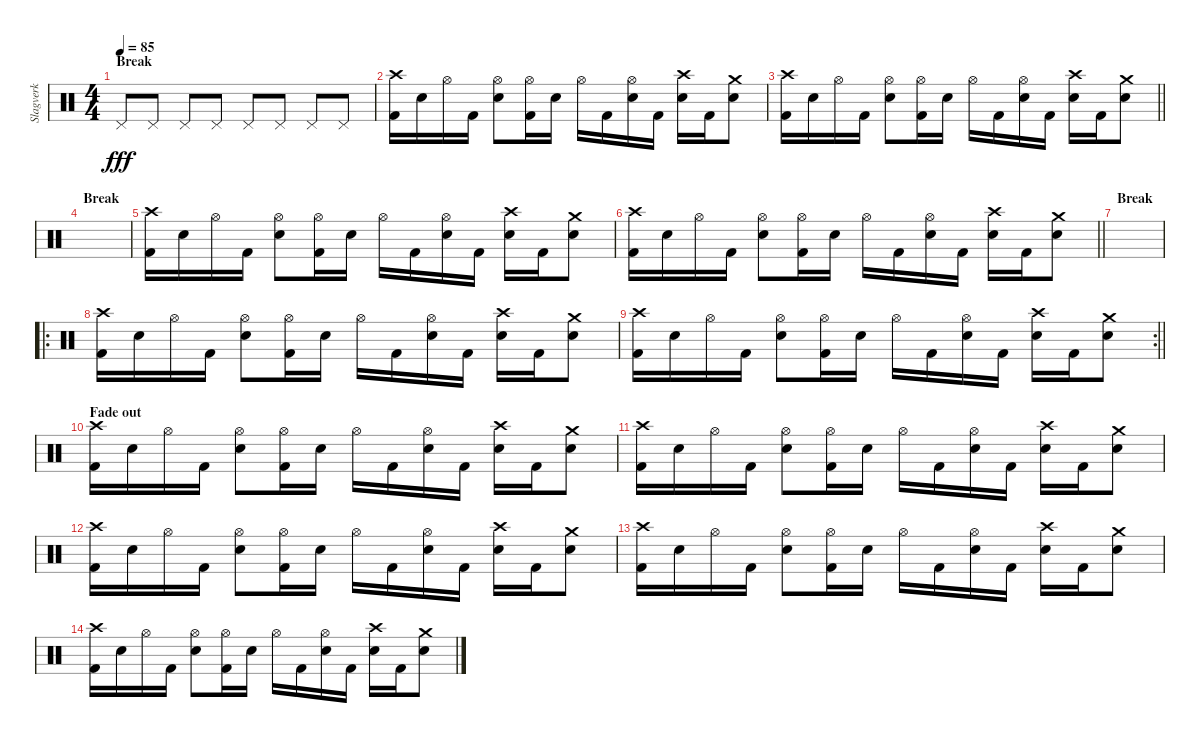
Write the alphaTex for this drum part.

\track ("Slagverk" "Slagverk") {instrument percussion}
\staff {score}
\articulation defaults
\ts (4 4)
\section ("" "Break")
\tempo 85
\clef neutral
\ks c "Pedal Hi-Hat (hit)".8{dy fff} "Pedal Hi-Hat (hit)".8 "Pedal Hi-Hat (hit)".8 "Pedal Hi-Hat (hit)".8 "Pedal Hi-Hat (hit)".8 "Pedal Hi-Hat (hit)".8 "Pedal Hi-Hat (hit)".8 "Pedal Hi-Hat (hit)".8
|
("Crash high (hit)" "Kick (hit) 2").16 "Snare (hit) 2".16 "Hi-Hat (open)".16 "Kick (hit) 2".16 ("Hi-Hat (open)" "Snare (hit) 2").8 ("Hi-Hat (open)" "Kick (hit) 2").16 "Snare (hit) 2".16 "Hi-Hat (open)".16 "Kick (hit) 2".16 ("Hi-Hat (open)" "Snare (hit) 2").16 "Kick (hit) 2".16 ("Crash high (hit)" "Snare (hit) 2").16 "Kick (hit) 2".16 ("Crash medium (hit)" "Snare (hit) 2").8 |
\barLineRight lightlight
("Crash high (hit)" "Kick (hit) 2").16 "Snare (hit) 2".16 "Hi-Hat (open)".16 "Kick (hit) 2".16 ("Hi-Hat (open)" "Snare (hit) 2").8 ("Hi-Hat (open)" "Kick (hit) 2").16 "Snare (hit) 2".16 "Hi-Hat (open)".16 "Kick (hit) 2".16 ("Hi-Hat (open)" "Snare (hit) 2").16 "Kick (hit) 2".16 ("Crash high (hit)" "Snare (hit) 2").16 "Kick (hit) 2".16 ("Crash medium (hit)" "Snare (hit) 2").8 |
\section ("" "Break")
|
("Crash high (hit)" "Kick (hit) 2").16 "Snare (hit) 2".16 "Hi-Hat (open)".16 "Kick (hit) 2".16 ("Hi-Hat (open)" "Snare (hit) 2").8 ("Hi-Hat (open)" "Kick (hit) 2").16 "Snare (hit) 2".16 "Hi-Hat (open)".16 "Kick (hit) 2".16 ("Hi-Hat (open)" "Snare (hit) 2").16 "Kick (hit) 2".16 ("Crash high (hit)" "Snare (hit) 2").16 "Kick (hit) 2".16 ("Crash medium (hit)" "Snare (hit) 2").8 |
\barLineRight lightlight
("Crash high (hit)" "Kick (hit) 2").16 "Snare (hit) 2".16 "Hi-Hat (open)".16 "Kick (hit) 2".16 ("Hi-Hat (open)" "Snare (hit) 2").8 ("Hi-Hat (open)" "Kick (hit) 2").16 "Snare (hit) 2".16 "Hi-Hat (open)".16 "Kick (hit) 2".16 ("Hi-Hat (open)" "Snare (hit) 2").16 "Kick (hit) 2".16 ("Crash high (hit)" "Snare (hit) 2").16 "Kick (hit) 2".16 ("Crash medium (hit)" "Snare (hit) 2").8 |
\section ("" "Break")
|
\ro
("Crash high (hit)" "Kick (hit) 2").16 "Snare (hit) 2".16 "Hi-Hat (open)".16 "Kick (hit) 2".16 ("Hi-Hat (open)" "Snare (hit) 2").8 ("Hi-Hat (open)" "Kick (hit) 2").16 "Snare (hit) 2".16 "Hi-Hat (open)".16 "Kick (hit) 2".16 ("Hi-Hat (open)" "Snare (hit) 2").16 "Kick (hit) 2".16 ("Crash high (hit)" "Snare (hit) 2").16 "Kick (hit) 2".16 ("Crash medium (hit)" "Snare (hit) 2").8 |
\rc 2
\barLineRight lightlight
("Crash high (hit)" "Kick (hit) 2").16 "Snare (hit) 2".16 "Hi-Hat (open)".16 "Kick (hit) 2".16 ("Hi-Hat (open)" "Snare (hit) 2").8 ("Hi-Hat (open)" "Kick (hit) 2").16 "Snare (hit) 2".16 "Hi-Hat (open)".16 "Kick (hit) 2".16 ("Hi-Hat (open)" "Snare (hit) 2").16 "Kick (hit) 2".16 ("Crash high (hit)" "Snare (hit) 2").16 "Kick (hit) 2".16 ("Crash medium (hit)" "Snare (hit) 2").8 |
\section ("" "Fade out")
("Crash high (hit)" "Kick (hit) 2").16{volume 0} "Snare (hit) 2".16 "Hi-Hat (open)".16 "Kick (hit) 2".16 ("Hi-Hat (open)" "Snare (hit) 2").8 ("Hi-Hat (open)" "Kick (hit) 2").16 "Snare (hit) 2".16 "Hi-Hat (open)".16 "Kick (hit) 2".16 ("Hi-Hat (open)" "Snare (hit) 2").16 "Kick (hit) 2".16 ("Crash high (hit)" "Snare (hit) 2").16 "Kick (hit) 2".16 ("Crash medium (hit)" "Snare (hit) 2").8 |
("Crash high (hit)" "Kick (hit) 2").16 "Snare (hit) 2".16 "Hi-Hat (open)".16 "Kick (hit) 2".16 ("Hi-Hat (open)" "Snare (hit) 2").8 ("Hi-Hat (open)" "Kick (hit) 2").16 "Snare (hit) 2".16 "Hi-Hat (open)".16 "Kick (hit) 2".16 ("Hi-Hat (open)" "Snare (hit) 2").16 "Kick (hit) 2".16 ("Crash high (hit)" "Snare (hit) 2").16 "Kick (hit) 2".16 ("Crash medium (hit)" "Snare (hit) 2").8 |
("Crash high (hit)" "Kick (hit) 2").16 "Snare (hit) 2".16 "Hi-Hat (open)".16 "Kick (hit) 2".16 ("Hi-Hat (open)" "Snare (hit) 2").8 ("Hi-Hat (open)" "Kick (hit) 2").16 "Snare (hit) 2".16 "Hi-Hat (open)".16 "Kick (hit) 2".16 ("Hi-Hat (open)" "Snare (hit) 2").16 "Kick (hit) 2".16 ("Crash high (hit)" "Snare (hit) 2").16 "Kick (hit) 2".16 ("Crash medium (hit)" "Snare (hit) 2").8 |
("Crash high (hit)" "Kick (hit) 2").16 "Snare (hit) 2".16 "Hi-Hat (open)".16 "Kick (hit) 2".16 ("Hi-Hat (open)" "Snare (hit) 2").8 ("Hi-Hat (open)" "Kick (hit) 2").16 "Snare (hit) 2".16 "Hi-Hat (open)".16 "Kick (hit) 2".16 ("Hi-Hat (open)" "Snare (hit) 2").16 "Kick (hit) 2".16 ("Crash high (hit)" "Snare (hit) 2").16 "Kick (hit) 2".16 ("Crash medium (hit)" "Snare (hit) 2").8 |
("Crash high (hit)" "Kick (hit) 2").16 "Snare (hit) 2".16 "Hi-Hat (open)".16 "Kick (hit) 2".16 ("Hi-Hat (open)" "Snare (hit) 2").8 ("Hi-Hat (open)" "Kick (hit) 2").16 "Snare (hit) 2".16 "Hi-Hat (open)".16 "Kick (hit) 2".16 ("Hi-Hat (open)" "Snare (hit) 2").16 "Kick (hit) 2".16 ("Crash high (hit)" "Snare (hit) 2").16 "Kick (hit) 2".16 ("Crash medium (hit)" "Snare (hit) 2").8
